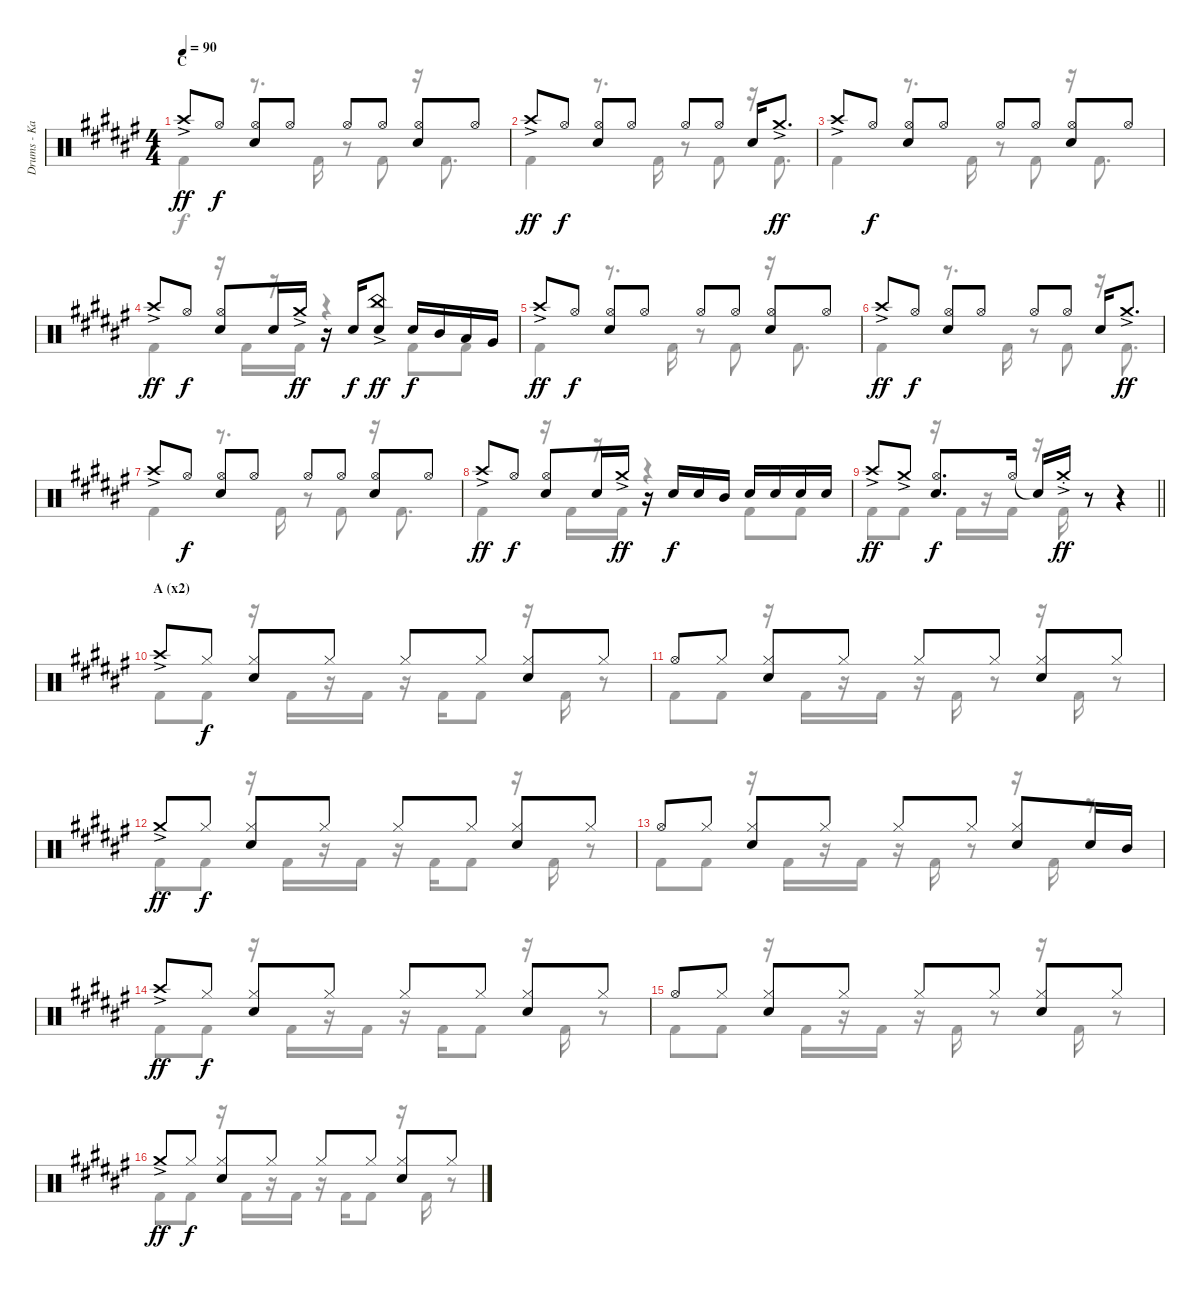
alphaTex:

\track ("Drums - Kai" "Drums - Ka") {instrument percussion}
\staff {score}
\articulation defaults
\voice
\ts (4 4)
\section ("" "C")
\tempo 90
\clef neutral
\ks f# "Crash high (hit)"{ac}.8{dy ff} "Hi-Hat (open)".8{dy f}
("Hi-Hat (open)" "Snare (hit) 2").8 "Hi-Hat (open)".8 "Hi-Hat (open)".8 "Hi-Hat (open)".8 ("Hi-Hat (open)" "Snare (hit) 2").8 "Hi-Hat (open)".8 |
"Crash high (hit)"{ac}.8{dy ff} "Hi-Hat (open)".8{dy f} ("Hi-Hat (open)" "Snare (hit) 2").8 "Hi-Hat (open)".8 "Hi-Hat (open)".8 "Hi-Hat (open)".8 "Snare (hit) 2".16 "Crash medium (hit)"{ac}.8{d dy ff} |
"Crash high (hit)"{ac}.8 "Hi-Hat (open)".8{dy f} ("Hi-Hat (open)" "Snare (hit) 2").8 "Hi-Hat (open)".8 "Hi-Hat (open)".8 "Hi-Hat (open)".8 ("Hi-Hat (open)" "Snare (hit) 2").8 "Hi-Hat (open)".8 |
"Crash high (hit)"{ac}.8{dy ff} "Hi-Hat (open)".8{dy f} ("Hi-Hat (open)" "Snare (hit) 2").8 "Snare (hit) 2".16 "Crash medium (hit)"{ac}.16{dy ff} r.16 "Snare (hit) 2".16{dy f} ("China (hit)"{ac} "Snare (hit) 2").8{dy ff} "Snare (hit) 2".16{dy f} "Mid Tom (hit)".16 "Low Tom (hit)".16 "Very Low Tom (hit)".16 |
"Crash high (hit)"{ac}.8{dy ff} "Hi-Hat (open)".8{dy f} ("Hi-Hat (open)" "Snare (hit) 2").8 "Hi-Hat (open)".8 "Hi-Hat (open)".8 "Hi-Hat (open)".8 ("Hi-Hat (open)" "Snare (hit) 2").8 "Hi-Hat (open)".8 |
"Crash high (hit)"{ac}.8{dy ff} "Hi-Hat (open)".8{dy f} ("Hi-Hat (open)" "Snare (hit) 2").8 "Hi-Hat (open)".8 "Hi-Hat (open)".8 "Hi-Hat (open)".8 "Snare (hit) 2".16 "Crash medium (hit)"{ac}.8{d dy ff} |
"Crash high (hit)"{ac}.8 "Hi-Hat (open)".8{dy f} ("Hi-Hat (open)" "Snare (hit) 2").8 "Hi-Hat (open)".8 "Hi-Hat (open)".8 "Hi-Hat (open)".8 ("Hi-Hat (open)" "Snare (hit) 2").8 "Hi-Hat (open)".8 |
"Crash high (hit)"{ac}.8{dy ff} "Hi-Hat (open)".8{dy f} ("Hi-Hat (open)" "Snare (hit) 2").8 "Snare (hit) 2".16 "Crash medium (hit)"{ac}.16{dy ff} r.16 "Snare (hit) 2".16{dy f} "Snare (hit) 2".16 "Mid Tom (hit)".16 "Snare (hit) 2".16 "Snare (hit) 2".16 "Snare (hit) 2".16 "Snare (hit) 2".16 |
\barLineRight lightlight "Crash high (hit)"{ac}.8{dy ff} "Crash medium (hit)"{ac}.8
("Hi-Hat (open)" "Snare (hit) 2").8{d dy f} "Hi-Hat (open)".16 "Snare (hit)"{t}.16 "Crash medium (hit)"{ac st}.16{dy ff} r.8 r.4 |
\section ("" "A (x2)")
"Crash high (hit)"{ac}.8 "Hi-Hat (closed)".8{dy f} ("Hi-Hat (closed)" "Snare (hit) 2").8 "Hi-Hat (closed)".8 "Hi-Hat (closed)".8 "Hi-Hat (closed)".8 ("Hi-Hat (closed)" "Snare (hit) 2").8 "Hi-Hat (closed)".8 |
"Hi-Hat (open)".8 "Hi-Hat (closed)".8 ("Hi-Hat (closed)" "Snare (hit) 2").8 "Hi-Hat (closed)".8 "Hi-Hat (closed)".8 "Hi-Hat (closed)".8 ("Hi-Hat (closed)" "Snare (hit) 2").8 "Hi-Hat (closed)".8 |
"Crash medium (hit)"{ac}.8{dy ff} "Hi-Hat (closed)".8{dy f} ("Hi-Hat (closed)" "Snare (hit) 2").8 "Hi-Hat (closed)".8 "Hi-Hat (closed)".8 "Hi-Hat (closed)".8 ("Hi-Hat (closed)" "Snare (hit) 2").8 "Hi-Hat (closed)".8 |
"Hi-Hat (open)".8 "Hi-Hat (closed)".8 ("Hi-Hat (closed)" "Snare (hit) 2").8 "Hi-Hat (closed)".8 "Hi-Hat (closed)".8 "Hi-Hat (closed)".8 ("Hi-Hat (closed)" "Snare (hit) 2").8 "Snare (hit) 2".16 "Mid Tom (hit)".16 |
"Crash high (hit)"{ac}.8{dy ff} "Hi-Hat (closed)".8{dy f} ("Hi-Hat (closed)" "Snare (hit) 2").8 "Hi-Hat (closed)".8 "Hi-Hat (closed)".8 "Hi-Hat (closed)".8 ("Hi-Hat (closed)" "Snare (hit) 2").8 "Hi-Hat (closed)".8 |
"Hi-Hat (open)".8 "Hi-Hat (closed)".8 ("Hi-Hat (closed)" "Snare (hit) 2").8 "Hi-Hat (closed)".8 "Hi-Hat (closed)".8 "Hi-Hat (closed)".8 ("Hi-Hat (closed)" "Snare (hit) 2").8 "Hi-Hat (closed)".8 |
"Crash medium (hit)"{ac}.8{dy ff} "Hi-Hat (closed)".8{dy f} ("Hi-Hat (closed)" "Snare (hit) 2").8 "Hi-Hat (closed)".8 "Hi-Hat (closed)".8 "Hi-Hat (closed)".8 ("Hi-Hat (closed)" "Snare (hit) 2").8 "Hi-Hat (closed)".8
\voice
\clef neutral
\ottava regular
\simile none
\ks f# "Kick (hit) 2".4{dy f}
r.8{d} "Kick (hit) 2".16 r.8 "Kick (hit) 2".8 r.16 "Kick (hit) 2".8{d} |
"Kick (hit) 2".4 r.8{d} "Kick (hit) 2".16 r.8 "Kick (hit) 2".8 r.16 "Kick (hit) 2".8{d} |
"Kick (hit) 2".4 r.8{d} "Kick (hit) 2".16 r.8 "Kick (hit) 2".8 r.16 "Kick (hit) 2".8{d} |
"Kick (hit) 2".4 r.16 "Kick (hit) 2".16 r.16 "Kick (hit) 2".16 r.4 "Kick (hit) 2".8 "Kick (hit) 2".8 |
"Kick (hit) 2".4 r.8{d} "Kick (hit) 2".16 r.8 "Kick (hit) 2".8 r.16 "Kick (hit) 2".8{d} |
"Kick (hit) 2".4 r.8{d} "Kick (hit) 2".16 r.8 "Kick (hit) 2".8 r.16 "Kick (hit) 2".8{d} |
"Kick (hit) 2".4 r.8{d} "Kick (hit) 2".16 r.8 "Kick (hit) 2".8 r.16 "Kick (hit) 2".8{d} |
"Kick (hit) 2".4 r.16 "Kick (hit) 2".16 r.16 "Kick (hit) 2".16 r.4 "Kick (hit) 2".8 "Kick (hit) 2".8 |
\barLineRight lightlight "Kick (hit) 2".8 "Kick (hit) 2".8
r.16 "Kick (hit) 2".16 r.16 "Kick (hit) 2".16 r.16 "Kick (hit) 2".16 r.8 r.4 |
"Kick (hit) 2".8 "Kick (hit) 2".8 r.16 "Kick (hit) 2".16 r.16 "Kick (hit) 2".16 r.16 "Kick (hit) 2".16 "Kick (hit) 2".8 r.16 "Kick (hit) 2".16 r.8 |
"Kick (hit) 2".8 "Kick (hit) 2".8 r.16 "Kick (hit) 2".16 r.16 "Kick (hit) 2".16 r.16 "Kick (hit) 2".16 r.8 r.16 "Kick (hit) 2".16 r.8 |
"Kick (hit) 2".8 "Kick (hit) 2".8 r.16 "Kick (hit) 2".16 r.16 "Kick (hit) 2".16 r.16 "Kick (hit) 2".16 "Kick (hit) 2".8 r.16 "Kick (hit) 2".16 r.8 |
"Kick (hit) 2".8 "Kick (hit) 2".8 r.16 "Kick (hit) 2".16 r.16 "Kick (hit) 2".16 r.16 "Kick (hit) 2".16 r.8 r.16 "Kick (hit) 2".16 r.8 |
"Kick (hit) 2".8 "Kick (hit) 2".8 r.16 "Kick (hit) 2".16 r.16 "Kick (hit) 2".16 r.16 "Kick (hit) 2".16 "Kick (hit) 2".8 r.16 "Kick (hit) 2".16 r.8 |
"Kick (hit) 2".8 "Kick (hit) 2".8 r.16 "Kick (hit) 2".16 r.16 "Kick (hit) 2".16 r.16 "Kick (hit) 2".16 r.8 r.16 "Kick (hit) 2".16 r.8 |
"Kick (hit) 2".8 "Kick (hit) 2".8 r.16 "Kick (hit) 2".16 r.16 "Kick (hit) 2".16 r.16 "Kick (hit) 2".16 "Kick (hit) 2".8 r.16 "Kick (hit) 2".16 r.8
